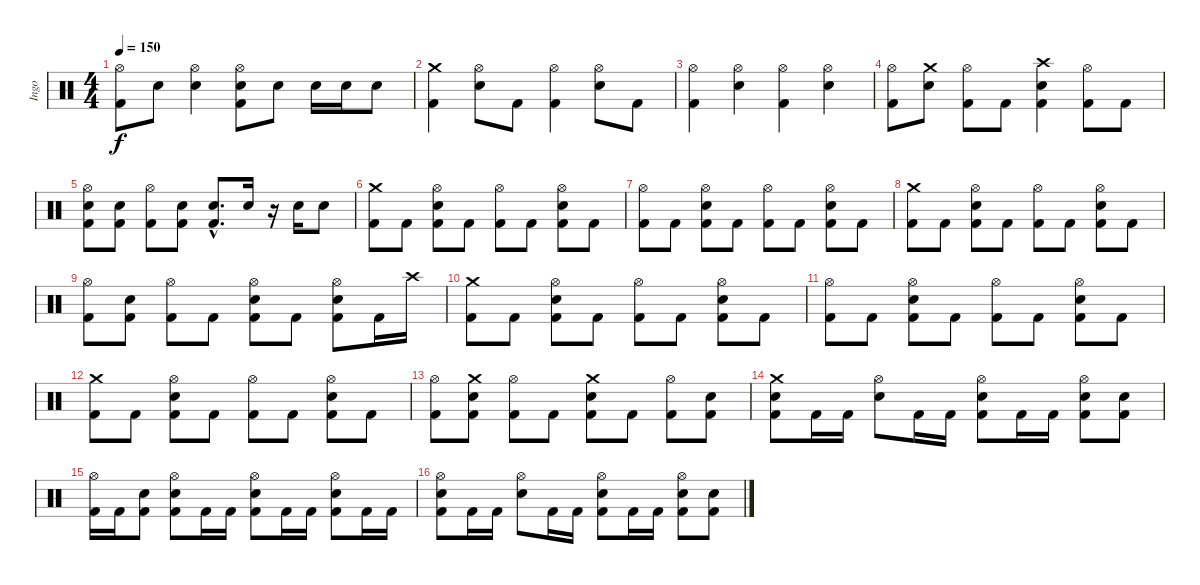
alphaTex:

\track ("Ingo" "Ingo") {instrument percussion}
\staff {score}
\articulation defaults
\ts (4 4)
\tempo 150
\clef neutral
\ks c
("Hi-Hat (open)" "Kick (hit) 2").8{dy f} "Electric Snare (hit)".8 ("Hi-Hat (open)" "Electric Snare (hit)").4 ("Hi-Hat (open)" "Electric Snare (hit)" "Kick (hit) 2").8 "Electric Snare (hit)".8 "Electric Snare (hit)".16 "Electric Snare (hit)".16 "Electric Snare (hit)".8 |
("Crash medium (hit)" "Kick (hit) 2").4 ("Hi-Hat (open)" "Electric Snare (hit)").8 "Kick (hit) 2".8 ("Hi-Hat (open)" "Kick (hit) 2").4 ("Hi-Hat (open)" "Electric Snare (hit)").8 "Kick (hit) 2".8 |
("Hi-Hat (open)" "Kick (hit) 2").4 ("Hi-Hat (open)" "Electric Snare (hit)").4 ("Hi-Hat (open)" "Kick (hit) 2").4 ("Hi-Hat (open)" "Electric Snare (hit)").4 |
("Hi-Hat (open)" "Kick (hit) 2").8 ("Crash medium (hit)" "Electric Snare (hit)").8 ("Hi-Hat (open)" "Kick (hit) 2").8 "Kick (hit) 2".8 ("Crash high (hit)" "Electric Snare (hit)" "Kick (hit) 2").4 ("Hi-Hat (open)" "Kick (hit) 2").8 "Kick (hit) 2".8 |
("Hi-Hat (open)" "Electric Snare (hit)" "Kick (hit) 2").8 ("Electric Snare (hit)" "Kick (hit) 2").8 ("Hi-Hat (open)" "Kick (hit) 2").8 ("Electric Snare (hit)" "Kick (hit) 2").8 ("Electric Snare (hit)"{hac} "Kick (hit) 2"{hac}).8{d} "Electric Snare (hit)".16 r.16 "Electric Snare (hit)".16 "Electric Snare (hit)".8 |
("Crash medium (hit)" "Kick (hit) 2").8 "Kick (hit) 2".8 ("Hi-Hat (open)" "Electric Snare (hit)" "Kick (hit) 2").8 "Kick (hit) 2".8 ("Hi-Hat (open)" "Kick (hit) 2").8 "Kick (hit) 2".8 ("Hi-Hat (open)" "Electric Snare (hit)" "Kick (hit) 2").8 "Kick (hit) 2".8 |
("Hi-Hat (open)" "Kick (hit) 2").8 "Kick (hit) 2".8 ("Hi-Hat (open)" "Electric Snare (hit)" "Kick (hit) 2").8 "Kick (hit) 2".8 ("Hi-Hat (open)" "Kick (hit) 2").8 "Kick (hit) 2".8 ("Hi-Hat (open)" "Electric Snare (hit)" "Kick (hit) 2").8 "Kick (hit) 2".8 |
("Crash medium (hit)" "Kick (hit) 2").8 "Kick (hit) 2".8 ("Hi-Hat (open)" "Electric Snare (hit)" "Kick (hit) 2").8 "Kick (hit) 2".8 ("Hi-Hat (open)" "Kick (hit) 2").8 "Kick (hit) 2".8 ("Hi-Hat (open)" "Electric Snare (hit)" "Kick (hit) 2").8 "Kick (hit) 2".8 |
("Hi-Hat (open)" "Kick (hit) 2").8 ("Electric Snare (hit)" "Kick (hit) 2").8 ("Hi-Hat (open)" "Kick (hit) 2").8 "Kick (hit) 2".8 ("Hi-Hat (open)" "Electric Snare (hit)" "Kick (hit) 2").8 "Kick (hit) 2".8 ("Hi-Hat (open)" "Electric Snare (hit)" "Kick (hit) 2").8 "Kick (hit) 2".16 "Crash high (hit)".16 |
("Crash medium (hit)" "Kick (hit) 2").8 "Kick (hit) 2".8 ("Hi-Hat (open)" "Electric Snare (hit)" "Kick (hit) 2").8 "Kick (hit) 2".8 ("Hi-Hat (open)" "Kick (hit) 2").8 "Kick (hit) 2".8 ("Hi-Hat (open)" "Electric Snare (hit)" "Kick (hit) 2").8 "Kick (hit) 2".8 |
("Hi-Hat (open)" "Kick (hit) 2").8 "Kick (hit) 2".8 ("Hi-Hat (open)" "Electric Snare (hit)" "Kick (hit) 2").8 "Kick (hit) 2".8 ("Hi-Hat (open)" "Kick (hit) 2").8 "Kick (hit) 2".8 ("Hi-Hat (open)" "Electric Snare (hit)" "Kick (hit) 2").8 "Kick (hit) 2".8 |
("Crash medium (hit)" "Kick (hit) 2").8 "Kick (hit) 2".8 ("Hi-Hat (open)" "Electric Snare (hit)" "Kick (hit) 2").8 "Kick (hit) 2".8 ("Hi-Hat (open)" "Kick (hit) 2").8 "Kick (hit) 2".8 ("Hi-Hat (open)" "Electric Snare (hit)" "Kick (hit) 2").8 "Kick (hit) 2".8 |
("Hi-Hat (open)" "Kick (hit) 2").8 ("Crash medium (hit)" "Electric Snare (hit)" "Kick (hit) 2").8 ("Hi-Hat (open)" "Kick (hit) 2").8 "Kick (hit) 2".8 ("Crash medium (hit)" "Electric Snare (hit)" "Kick (hit) 2").8 "Kick (hit) 2".8 ("Hi-Hat (open)" "Kick (hit) 2").8 ("Electric Snare (hit)" "Kick (hit) 2").8 |
("Crash medium (hit)" "Electric Snare (hit)" "Kick (hit) 2").8 "Kick (hit) 2".16 "Kick (hit) 2".16 ("Hi-Hat (open)" "Electric Snare (hit)").8 "Kick (hit) 2".16 "Kick (hit) 2".16 ("Hi-Hat (open)" "Electric Snare (hit)" "Kick (hit) 2").8 "Kick (hit) 2".16 "Kick (hit) 2".16 ("Hi-Hat (open)" "Electric Snare (hit)" "Kick (hit) 2").8 ("Electric Snare (hit)" "Kick (hit) 2").8 |
("Hi-Hat (open)" "Kick (hit) 2").16 "Kick (hit) 2".16 ("Electric Snare (hit)" "Kick (hit) 2").8 ("Hi-Hat (open)" "Electric Snare (hit)" "Kick (hit) 2").8 "Kick (hit) 2".16 "Kick (hit) 2".16 ("Hi-Hat (open)" "Electric Snare (hit)" "Kick (hit) 2").8 "Kick (hit) 2".16 "Kick (hit) 2".16 ("Hi-Hat (open)" "Electric Snare (hit)" "Kick (hit) 2").8 "Kick (hit) 2".16 "Kick (hit) 2".16 |
("Hi-Hat (open)" "Electric Snare (hit)" "Kick (hit) 2").8 "Kick (hit) 2".16 "Kick (hit) 2".16 ("Hi-Hat (open)" "Electric Snare (hit)").8 "Kick (hit) 2".16 "Kick (hit) 2".16 ("Hi-Hat (open)" "Electric Snare (hit)" "Kick (hit) 2").8 "Kick (hit) 2".16 "Kick (hit) 2".16 ("Hi-Hat (open)" "Electric Snare (hit)" "Kick (hit) 2").8 ("Electric Snare (hit)" "Kick (hit) 2").8
